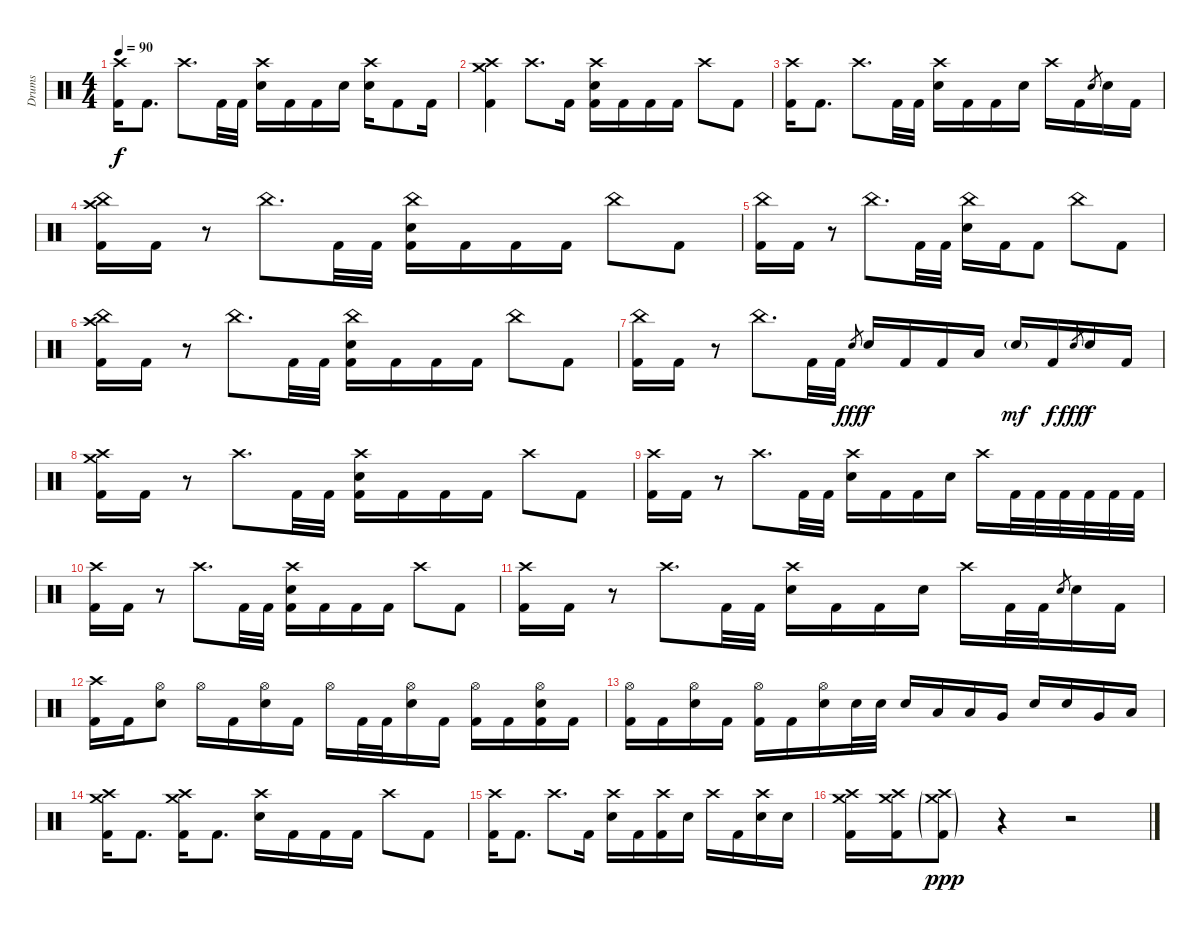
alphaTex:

\track ("Drums" "Drums") {instrument percussion}
\staff {score}
\articulation defaults
\ts (4 4)
\tempo 90
\clef neutral
\ks c
("Crash high (hit)" "Kick (hit) 2").16{dy f} "Kick (hit) 2".8{d} "Crash high (hit)".8{d} "Kick (hit) 2".32 "Kick (hit) 2".32 ("Crash high (hit)" "Electric Snare (hit)").16 "Kick (hit) 2".16 "Kick (hit) 2".16 "Electric Snare (hit)".16 ("Crash high (hit)" "Snare (hit)").16 "Kick (hit) 2".8 "Kick (hit) 2".16 |
("Crash high (hit)" "Crash medium (hit)" "Kick (hit) 2").4 "Crash high (hit)".8{d} "Kick (hit) 2".16 ("Crash high (hit)" "Electric Snare (hit)" "Kick (hit) 2").16 "Kick (hit) 2".16 "Kick (hit) 2".16 "Kick (hit) 2".16 "Crash high (hit)".8 "Kick (hit) 2".8 |
("Crash high (hit)" "Kick (hit) 2").16 "Kick (hit) 2".8{d} "Crash high (hit)".8{d} "Kick (hit) 2".32 "Kick (hit) 2".32 ("Crash high (hit)" "Electric Snare (hit)").16 "Kick (hit) 2".16 "Kick (hit) 2".16 "Electric Snare (hit)".16 "Crash high (hit)".16 "Kick (hit) 2".16 "Electric Snare (hit)".8{gr} "Electric Snare (hit)".16 "Kick (hit) 2".16 |
("Crash high (hit)" "China (hit)" "Kick (hit) 2").16 "Kick (hit) 2".16 r.8 "China (hit)".8{d} "Kick (hit) 2".32 "Kick (hit) 2".32 ("China (hit)" "Electric Snare (hit)" "Kick (hit) 2").16 "Kick (hit) 2".16 "Kick (hit) 2".16 "Kick (hit) 2".16 "China (hit)".8 "Kick (hit) 2".8 |
("China (hit)" "Kick (hit) 2").16 "Kick (hit) 2".16 r.8 "China (hit)".8{d} "Kick (hit) 2".32 "Kick (hit) 2".32 ("China (hit)" "Electric Snare (hit)").16 "Kick (hit) 2".16 "Kick (hit) 2".8 "China (hit)".8 "Kick (hit) 2".8 |
("Crash high (hit)" "China (hit)" "Kick (hit) 2").16 "Kick (hit) 2".16 r.8 "China (hit)".8{d} "Kick (hit) 2".32 "Kick (hit) 2".32 ("China (hit)" "Electric Snare (hit)" "Kick (hit) 2").16 "Kick (hit) 2".16 "Kick (hit) 2".16 "Kick (hit) 2".16 "China (hit)".8 "Kick (hit) 2".8 |
("China (hit)" "Kick (hit) 2").16 "Kick (hit) 2".16 r.8 "China (hit)".8{d} "Kick (hit) 2".32 "Kick (hit) 2".32 "Electric Snare (hit)".8{gr dy fff} "Electric Snare (hit)".16{dy f} "Kick (hit) 2".16 "Kick (hit) 2".16 "Low Tom (hit)".16 "Snare (hit) 2"{g}.16{dy mf} "Kick (hit) 2".16{dy f} "Electric Snare (hit)".8{gr dy fff} "Electric Snare (hit)".16{dy f} "Kick (hit) 2".16 |
("Crash high (hit)" "Crash medium (hit)" "Kick (hit) 2").16 "Kick (hit) 2".16 r.8 "Crash high (hit)".8{d} "Kick (hit) 2".32 "Kick (hit) 2".32 ("Crash high (hit)" "Electric Snare (hit)" "Kick (hit) 2").16 "Kick (hit) 2".16 "Kick (hit) 2".16 "Kick (hit) 2".16 "Crash high (hit)".8 "Kick (hit) 2".8 |
("Crash high (hit)" "Kick (hit) 2").16 "Kick (hit) 2".16 r.8 "Crash high (hit)".8{d} "Kick (hit) 2".32 "Kick (hit) 2".32 ("Crash high (hit)" "Electric Snare (hit)").16 "Kick (hit) 2".16 "Kick (hit) 2".16 "Electric Snare (hit)".16 "Crash high (hit)".16 "Kick (hit) 2".32 "Kick (hit) 2".32 "Kick (hit) 2".32 "Kick (hit) 2".32 "Kick (hit) 2".32 "Kick (hit) 2".32 |
("Crash high (hit)" "Kick (hit) 2").16 "Kick (hit) 2".16 r.8 "Crash high (hit)".8{d} "Kick (hit) 2".32 "Kick (hit) 2".32 ("Crash high (hit)" "Electric Snare (hit)" "Kick (hit) 2").16 "Kick (hit) 2".16 "Kick (hit) 2".16 "Kick (hit) 2".16 "Crash high (hit)".8 "Kick (hit) 2".8 |
("Crash high (hit)" "Kick (hit) 2").16 "Kick (hit) 2".16 r.8 "Crash high (hit)".8{d} "Kick (hit) 2".32 "Kick (hit) 2".32 ("Crash high (hit)" "Electric Snare (hit)").16 "Kick (hit) 2".16 "Kick (hit) 2".16 "Electric Snare (hit)".16 "Crash high (hit)".16 "Kick (hit) 2".32 "Kick (hit) 2".32 "Electric Snare (hit)".8{gr} "Electric Snare (hit)".16 "Kick (hit) 2".16 |
("Crash high (hit)" "Kick (hit) 2").16 "Kick (hit) 2".16 ("Hi-Hat (open)" "Electric Snare (hit)").8 "Hi-Hat (open)".16 "Kick (hit) 2".16 ("Hi-Hat (open)" "Electric Snare (hit)").16 "Kick (hit) 2".16 "Hi-Hat (open)".16 "Kick (hit) 2".32 "Kick (hit) 2".32 ("Hi-Hat (open)" "Electric Snare (hit)").16 "Kick (hit) 2".16 ("Hi-Hat (open)" "Kick (hit) 2").16 "Kick (hit) 2".16 ("Hi-Hat (open)" "Electric Snare (hit)" "Kick (hit) 2").16 "Kick (hit) 2".16 |
("Hi-Hat (open)" "Kick (hit) 2").16 "Kick (hit) 2".16 ("Hi-Hat (open)" "Electric Snare (hit)").16 "Kick (hit) 2".16 ("Hi-Hat (open)" "Kick (hit) 2").16 "Kick (hit) 2".16 ("Hi-Hat (open)" "Electric Snare (hit)").16 "Electric Snare (hit)".32 "Electric Snare (hit)".32 "Electric Snare (hit)".16 "Low Tom (hit)".16 "Low Tom (hit)".16 "Very Low Tom (hit)".16 "Electric Snare (hit)".16 "Electric Snare (hit)".16 "Very Low Tom (hit)".16 "Low Floor Tom (hit)".16 |
("Crash high (hit)" "Crash medium (hit)" "Kick (hit) 2").16 "Kick (hit) 2".8{d} ("Crash high (hit)" "Crash medium (hit)" "Kick (hit) 2").16 "Kick (hit) 2".8{d} ("Crash high (hit)" "Electric Snare (hit)").16 "Kick (hit) 2".16 "Kick (hit) 2".16 "Kick (hit) 2".16 "Crash high (hit)".8 "Kick (hit) 2".8 |
("Crash high (hit)" "Kick (hit) 2").16 "Kick (hit) 2".8{d} "Crash high (hit)".8{d} "Kick (hit) 2".16 ("Crash high (hit)" "Electric Snare (hit)").16 "Kick (hit) 2".16 ("Crash high (hit)" "Kick (hit) 2").16 "Electric Snare (hit)".16 "Crash high (hit)".16 "Kick (hit) 2".16 ("Crash high (hit)" "Electric Snare (hit)").16 "Electric Snare (hit)".16 |
("Crash high (hit)" "Crash medium (hit)" "Kick (hit) 2").16 ("Crash high (hit)" "Crash medium (hit)" "Kick (hit) 2").16 ("Crash high (hit)"{g} "Crash medium (hit)"{g} "Kick (hit) 2"{g}).8{dy ppp} r.4 r.2
